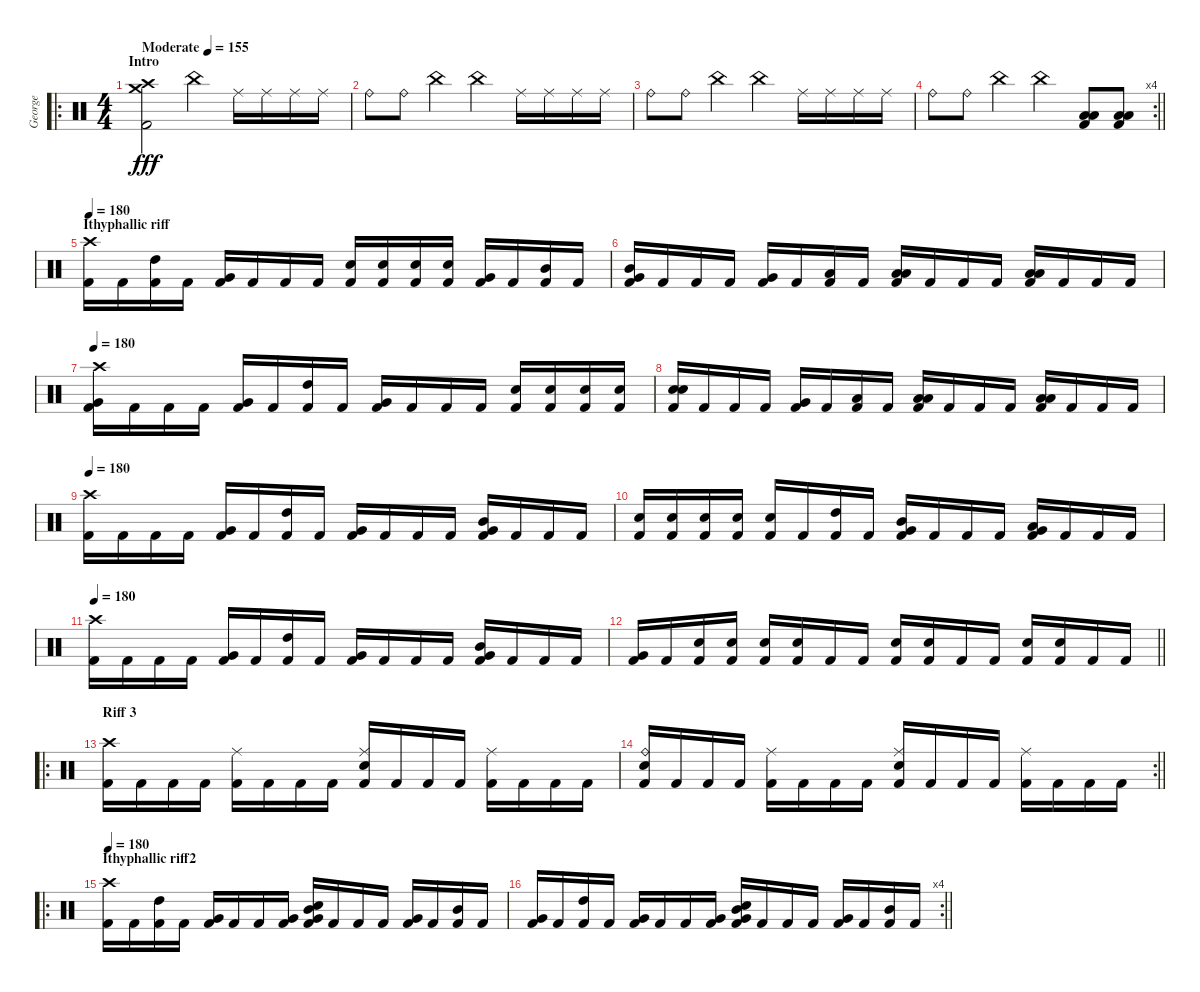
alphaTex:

\track ("George" "George") {instrument percussion}
\staff {score}
\articulation defaults
\ro
\ts (4 4)
\section ("" "Intro")
\tempo (155 "Moderate")
\clef neutral
\ks c
("Crash medium (hit)" "Crash high (hit)" "Kick (hit) 2").2{dy fff} "China (hit)".4 "Ride (middle)".16 "Ride (middle)".16 "Ride (middle)".16 "Ride (middle)".16 |
"Ride (bell)".8 "Ride (bell)".8 "China (hit)".4 "China (hit)".4 "Ride (middle)".16 "Ride (middle)".16 "Ride (middle)".16 "Ride (middle)".16 |
"Ride (bell)".8 "Ride (bell)".8 "China (hit)".4 "China (hit)".4 "Ride (middle)".16 "Ride (middle)".16 "Ride (middle)".16 "Ride (middle)".16 |
\rc 4
\barLineRight lightlight "Ride (bell)".8 "Ride (bell)".8 "China (hit)".4 "China (hit)".4
("Low Tom (hit)" "Low Floor Tom (hit)" "Kick (hit) 2").8 ("Low Tom (hit)" "Low Floor Tom (hit)" "Kick (hit) 2").8 |
\section ("" "Ithyphallic riff")
\tempo 190
\tempo 170
\tempo 180
("Crash high (hit)" "Kick (hit) 2").16 "Kick (hit) 2".16 ("High Tom (hit)" "Kick (hit) 2").16 "Kick (hit) 2".16 ("Very Low Tom (hit)" "Kick (hit) 2").16 "Kick (hit) 2".16 "Kick (hit) 2".16 "Kick (hit) 2".16 ("Snare (hit) 2" "Kick (hit) 2").16 ("Snare (hit) 2" "Kick (hit) 2").16 ("Snare (hit) 2" "Kick (hit) 2").16 ("Snare (hit) 2" "Kick (hit) 2").16 ("Very Low Tom (hit)" "Kick (hit) 2").16 "Kick (hit) 2".16 ("Mid Tom (hit)" "Kick (hit) 2").16 "Kick (hit) 2".16 |
("Mid Tom (hit)" "Very Low Tom (hit)" "Kick (hit) 2").16 "Kick (hit) 2".16 "Kick (hit) 2".16 "Kick (hit) 2".16 ("Very Low Tom (hit)" "Kick (hit) 2").16 "Kick (hit) 2".16 ("Low Tom (hit)" "Kick (hit) 2").16 "Kick (hit) 2".16 ("Low Tom (hit)" "Low Floor Tom (hit)" "Kick (hit) 2").16 "Kick (hit) 2".16 "Kick (hit) 2".16 "Kick (hit) 2".16 ("Low Floor Tom (hit)" "Low Tom (hit)" "Kick (hit) 2").16 "Kick (hit) 2".16 "Kick (hit) 2".16 "Kick (hit) 2".16 |
\tempo 190
\tempo 170
\tempo 180
("Crash high (hit)" "Very Low Tom (hit)" "Kick (hit) 2").16 "Kick (hit) 2".16 "Kick (hit) 2".16 "Kick (hit) 2".16 ("Very Low Tom (hit)" "Kick (hit) 2").16 "Kick (hit) 2".16 ("High Tom (hit)" "Kick (hit) 2").16 "Kick (hit) 2".16 ("Very Low Tom (hit)" "Kick (hit) 2").16 "Kick (hit) 2".16 "Kick (hit) 2".16 "Kick (hit) 2".16 ("Snare (hit) 2" "Kick (hit) 2").16 ("Snare (hit) 2" "Kick (hit) 2").16 ("Snare (hit) 2" "Kick (hit) 2").16 ("Snare (hit) 2" "Kick (hit) 2").16 |
("Snare (hit)" "Snare (hit) 2" "Kick (hit) 2").16 "Kick (hit) 2".16 "Kick (hit) 2".16 "Kick (hit) 2".16 ("Very Low Tom (hit)" "Kick (hit) 2").16 "Kick (hit) 2".16 ("Low Tom (hit)" "Kick (hit) 2").16 "Kick (hit) 2".16 ("Low Tom (hit)" "Low Floor Tom (hit)" "Kick (hit) 2").16 "Kick (hit) 2".16 "Kick (hit) 2".16 "Kick (hit) 2".16 ("Low Floor Tom (hit)" "Low Tom (hit)" "Kick (hit) 2").16 "Kick (hit) 2".16 "Kick (hit) 2".16 "Kick (hit) 2".16 |
\tempo 190
\tempo 170
\tempo 180
("Crash high (hit)" "Kick (hit) 2").16 "Kick (hit) 2".16 "Kick (hit) 2".16 "Kick (hit) 2".16 ("Very Low Tom (hit)" "Kick (hit) 2").16 "Kick (hit) 2".16 ("High Tom (hit)" "Kick (hit) 2").16 "Kick (hit) 2".16 ("Very Low Tom (hit)" "Kick (hit) 2").16 "Kick (hit) 2".16 "Kick (hit) 2".16 "Kick (hit) 2".16 ("Mid Tom (hit)" "Very Low Tom (hit)" "Kick (hit) 2").16 "Kick (hit) 2".16 "Kick (hit) 2".16 "Kick (hit) 2".16 |
("Snare (hit) 2" "Kick (hit) 2").16 ("Snare (hit) 2" "Kick (hit) 2").16 ("Snare (hit) 2" "Kick (hit) 2").16 ("Snare (hit) 2" "Kick (hit) 2").16 ("Snare (hit) 2" "Kick (hit) 2").16 "Kick (hit) 2".16 ("High Tom (hit)" "Kick (hit) 2").16 "Kick (hit) 2".16 ("Mid Tom (hit)" "Very Low Tom (hit)" "Kick (hit) 2").16 "Kick (hit) 2".16 "Kick (hit) 2".16 "Kick (hit) 2".16 ("Low Tom (hit)" "Very Low Tom (hit)" "Kick (hit) 2").16 "Kick (hit) 2".16 "Kick (hit) 2".16 "Kick (hit) 2".16 |
\tempo 190
\tempo 170
\tempo 180
("Crash high (hit)" "Kick (hit) 2").16 "Kick (hit) 2".16 "Kick (hit) 2".16 "Kick (hit) 2".16 ("Very Low Tom (hit)" "Kick (hit) 2").16 "Kick (hit) 2".16 ("High Tom (hit)" "Kick (hit) 2").16 "Kick (hit) 2".16 ("Very Low Tom (hit)" "Kick (hit) 2").16 "Kick (hit) 2".16 "Kick (hit) 2".16 "Kick (hit) 2".16 ("Mid Tom (hit)" "Very Low Tom (hit)" "Kick (hit) 2").16 "Kick (hit) 2".16 "Kick (hit) 2".16 "Kick (hit) 2".16 |
\barLineRight lightlight
("Very Low Tom (hit)" "Kick (hit) 2").16 "Kick (hit) 2".16 ("Snare (hit) 2" "Kick (hit) 2").16 ("Snare (hit) 2" "Kick (hit) 2").16 ("Snare (hit) 2" "Kick (hit) 2").16 ("Snare (hit) 2" "Kick (hit) 2").16 "Kick (hit) 2".16 "Kick (hit) 2".16 ("Snare (hit) 2" "Kick (hit) 2").16 ("Snare (hit) 2" "Kick (hit) 2").16 "Kick (hit) 2".16 "Kick (hit) 2".16 ("Snare (hit) 2" "Kick (hit) 2").16 ("Snare (hit) 2" "Kick (hit) 2").16 "Kick (hit) 2".16 "Kick (hit) 2".16 |
\ro
\section ("" "Riff 3")
("Crash high (hit)" "Kick (hit) 2").16 "Kick (hit) 2".16 "Kick (hit) 2".16 "Kick (hit) 2".16 ("Ride (middle)" "Kick (hit) 2").16 "Kick (hit) 2".16 "Kick (hit) 2".16 "Kick (hit) 2".16 ("Ride (middle)" "Snare (hit) 2" "Kick (hit) 2").16 "Kick (hit) 2".16 "Kick (hit) 2".16 "Kick (hit) 2".16 ("Ride (middle)" "Kick (hit) 2").16 "Kick (hit) 2".16 "Kick (hit) 2".16 "Kick (hit) 2".16 |
\rc 2
\barLineRight lightlight
("Ride (bell)" "Snare (hit) 2" "Kick (hit) 2").16 "Kick (hit) 2".16 "Kick (hit) 2".16 "Kick (hit) 2".16 ("Ride (middle)" "Kick (hit) 2").16 "Kick (hit) 2".16 "Kick (hit) 2".16 "Kick (hit) 2".16 ("Ride (middle)" "Snare (hit) 2" "Kick (hit) 2").16 "Kick (hit) 2".16 "Kick (hit) 2".16 "Kick (hit) 2".16 ("Ride (middle)" "Kick (hit) 2").16 "Kick (hit) 2".16 "Kick (hit) 2".16 "Kick (hit) 2".16 |
\ro
\section ("" "Ithyphallic riff2")
\tempo 190
\tempo 170
\tempo 180
("Crash high (hit)" "Kick (hit) 2").16 "Kick (hit) 2".16 ("High Tom (hit)" "Kick (hit) 2").16 "Kick (hit) 2".16 ("Very Low Tom (hit)" "Kick (hit) 2").16 "Kick (hit) 2".16 "Kick (hit) 2".16 ("Very Low Tom (hit)" "Kick (hit) 2").16 ("Mid Tom (hit)" "Very Low Tom (hit)" "Snare (hit) 2" "Kick (hit) 2").16 "Kick (hit) 2".16 "Kick (hit) 2".16 "Kick (hit) 2".16 ("Very Low Tom (hit)" "Kick (hit) 2").16 "Kick (hit) 2".16 ("Mid Tom (hit)" "Kick (hit) 2").16 "Kick (hit) 2".16 |
\rc 4
\barLineRight lightlight
("Very Low Tom (hit)" "Kick (hit) 2").16 "Kick (hit) 2".16 ("High Tom (hit)" "Kick (hit) 2").16 "Kick (hit) 2".16 ("Very Low Tom (hit)" "Kick (hit) 2").16 "Kick (hit) 2".16 "Kick (hit) 2".16 ("Very Low Tom (hit)" "Kick (hit) 2").16 ("Mid Tom (hit)" "Very Low Tom (hit)" "Snare (hit) 2" "Kick (hit) 2").16 "Kick (hit) 2".16 "Kick (hit) 2".16 "Kick (hit) 2".16 ("Very Low Tom (hit)" "Kick (hit) 2").16 "Kick (hit) 2".16 ("Mid Tom (hit)" "Kick (hit) 2").16 "Kick (hit) 2".16
